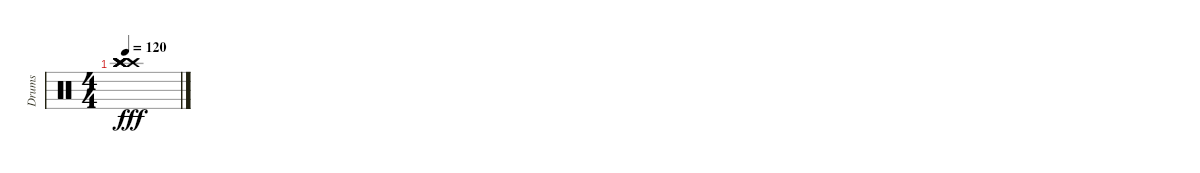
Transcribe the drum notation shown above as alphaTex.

\track ("Drums" "Drums") {instrument percussion}
\staff {score}
\articulation defaults
\ts (4 4)
\tempo 120
\clef neutral
\ks c
("Crash high (hit)" "Crash high (hit)" "Crash high (hit)" "Crash high (hit)" "Crash high (hit)" "Crash high (hit)").1{dy fff}
